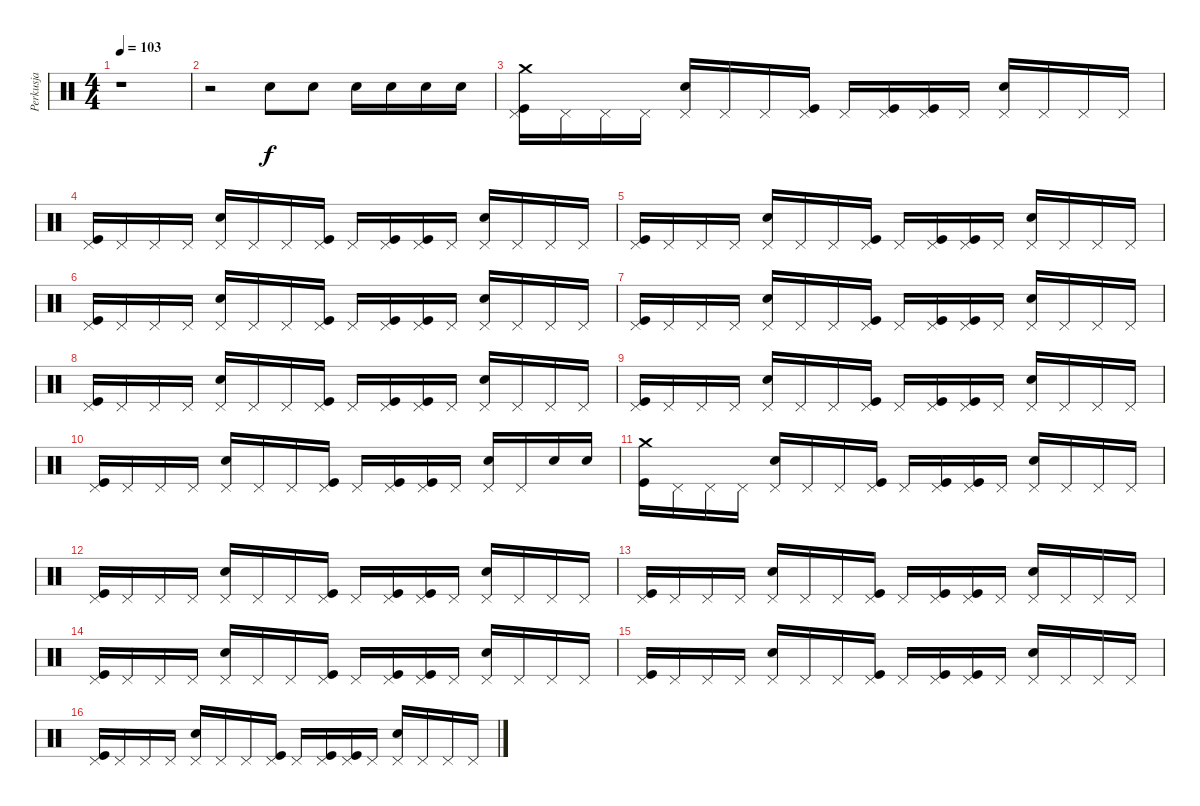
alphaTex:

\track ("Perkusja" "Perkusja") {instrument percussion}
\staff {score}
\articulation defaults
\ts (4 4)
\tempo 103
\clef neutral
\ks c
r.1{dy f} |
r.2 "Snare (hit) 2".8 "Snare (hit) 2".8 "Snare (hit) 2".16 "Snare (hit) 2".16 "Snare (hit) 2".16 "Snare (hit) 2".16 |
("Crash medium (hit)" "Pedal Hi-Hat (hit)" "Kick (hit)").16 "Pedal Hi-Hat (hit)".16 "Pedal Hi-Hat (hit)".16 "Pedal Hi-Hat (hit)".16 ("Pedal Hi-Hat (hit)" "Snare (hit) 2").16 "Pedal Hi-Hat (hit)".16 "Pedal Hi-Hat (hit)".16 ("Pedal Hi-Hat (hit)" "Kick (hit)").16 "Pedal Hi-Hat (hit)".16 ("Pedal Hi-Hat (hit)" "Kick (hit)").16 ("Pedal Hi-Hat (hit)" "Kick (hit)").16 "Pedal Hi-Hat (hit)".16 ("Pedal Hi-Hat (hit)" "Snare (hit) 2").16 "Pedal Hi-Hat (hit)".16 "Pedal Hi-Hat (hit)".16 "Pedal Hi-Hat (hit)".16 |
("Pedal Hi-Hat (hit)" "Kick (hit)").16 "Pedal Hi-Hat (hit)".16 "Pedal Hi-Hat (hit)".16 "Pedal Hi-Hat (hit)".16 ("Pedal Hi-Hat (hit)" "Snare (hit) 2").16 "Pedal Hi-Hat (hit)".16 "Pedal Hi-Hat (hit)".16 ("Pedal Hi-Hat (hit)" "Kick (hit)").16 "Pedal Hi-Hat (hit)".16 ("Pedal Hi-Hat (hit)" "Kick (hit)").16 ("Pedal Hi-Hat (hit)" "Kick (hit)").16 "Pedal Hi-Hat (hit)".16 ("Pedal Hi-Hat (hit)" "Snare (hit) 2").16 "Pedal Hi-Hat (hit)".16 "Pedal Hi-Hat (hit)".16 "Pedal Hi-Hat (hit)".16 |
("Pedal Hi-Hat (hit)" "Kick (hit)").16 "Pedal Hi-Hat (hit)".16 "Pedal Hi-Hat (hit)".16 "Pedal Hi-Hat (hit)".16 ("Pedal Hi-Hat (hit)" "Snare (hit) 2").16 "Pedal Hi-Hat (hit)".16 "Pedal Hi-Hat (hit)".16 ("Pedal Hi-Hat (hit)" "Kick (hit)").16 "Pedal Hi-Hat (hit)".16 ("Pedal Hi-Hat (hit)" "Kick (hit)").16 ("Pedal Hi-Hat (hit)" "Kick (hit)").16 "Pedal Hi-Hat (hit)".16 ("Pedal Hi-Hat (hit)" "Snare (hit) 2").16 "Pedal Hi-Hat (hit)".16 "Pedal Hi-Hat (hit)".16 "Pedal Hi-Hat (hit)".16 |
("Pedal Hi-Hat (hit)" "Kick (hit)").16 "Pedal Hi-Hat (hit)".16 "Pedal Hi-Hat (hit)".16 "Pedal Hi-Hat (hit)".16 ("Pedal Hi-Hat (hit)" "Snare (hit) 2").16 "Pedal Hi-Hat (hit)".16 "Pedal Hi-Hat (hit)".16 ("Pedal Hi-Hat (hit)" "Kick (hit)").16 "Pedal Hi-Hat (hit)".16 ("Pedal Hi-Hat (hit)" "Kick (hit)").16 ("Pedal Hi-Hat (hit)" "Kick (hit)").16 "Pedal Hi-Hat (hit)".16 ("Pedal Hi-Hat (hit)" "Snare (hit) 2").16 "Pedal Hi-Hat (hit)".16 "Pedal Hi-Hat (hit)".16 "Pedal Hi-Hat (hit)".16 |
("Pedal Hi-Hat (hit)" "Kick (hit)").16 "Pedal Hi-Hat (hit)".16 "Pedal Hi-Hat (hit)".16 "Pedal Hi-Hat (hit)".16 ("Pedal Hi-Hat (hit)" "Snare (hit) 2").16 "Pedal Hi-Hat (hit)".16 "Pedal Hi-Hat (hit)".16 ("Pedal Hi-Hat (hit)" "Kick (hit)").16 "Pedal Hi-Hat (hit)".16 ("Pedal Hi-Hat (hit)" "Kick (hit)").16 ("Pedal Hi-Hat (hit)" "Kick (hit)").16 "Pedal Hi-Hat (hit)".16 ("Pedal Hi-Hat (hit)" "Snare (hit) 2").16 "Pedal Hi-Hat (hit)".16 "Pedal Hi-Hat (hit)".16 "Pedal Hi-Hat (hit)".16 |
("Pedal Hi-Hat (hit)" "Kick (hit)").16 "Pedal Hi-Hat (hit)".16 "Pedal Hi-Hat (hit)".16 "Pedal Hi-Hat (hit)".16 ("Pedal Hi-Hat (hit)" "Snare (hit) 2").16 "Pedal Hi-Hat (hit)".16 "Pedal Hi-Hat (hit)".16 ("Pedal Hi-Hat (hit)" "Kick (hit)").16 "Pedal Hi-Hat (hit)".16 ("Pedal Hi-Hat (hit)" "Kick (hit)").16 ("Pedal Hi-Hat (hit)" "Kick (hit)").16 "Pedal Hi-Hat (hit)".16 ("Pedal Hi-Hat (hit)" "Snare (hit) 2").16 "Pedal Hi-Hat (hit)".16 "Pedal Hi-Hat (hit)".16 "Pedal Hi-Hat (hit)".16 |
("Pedal Hi-Hat (hit)" "Kick (hit)").16 "Pedal Hi-Hat (hit)".16 "Pedal Hi-Hat (hit)".16 "Pedal Hi-Hat (hit)".16 ("Pedal Hi-Hat (hit)" "Snare (hit) 2").16 "Pedal Hi-Hat (hit)".16 "Pedal Hi-Hat (hit)".16 ("Pedal Hi-Hat (hit)" "Kick (hit)").16 "Pedal Hi-Hat (hit)".16 ("Pedal Hi-Hat (hit)" "Kick (hit)").16 ("Pedal Hi-Hat (hit)" "Kick (hit)").16 "Pedal Hi-Hat (hit)".16 ("Pedal Hi-Hat (hit)" "Snare (hit) 2").16 "Pedal Hi-Hat (hit)".16 "Pedal Hi-Hat (hit)".16 "Pedal Hi-Hat (hit)".16 |
("Pedal Hi-Hat (hit)" "Kick (hit)").16 "Pedal Hi-Hat (hit)".16 "Pedal Hi-Hat (hit)".16 "Pedal Hi-Hat (hit)".16 ("Pedal Hi-Hat (hit)" "Snare (hit) 2").16 "Pedal Hi-Hat (hit)".16 "Pedal Hi-Hat (hit)".16 ("Pedal Hi-Hat (hit)" "Kick (hit)").16 "Pedal Hi-Hat (hit)".16 ("Pedal Hi-Hat (hit)" "Kick (hit)").16 ("Pedal Hi-Hat (hit)" "Kick (hit)").16 "Pedal Hi-Hat (hit)".16 ("Pedal Hi-Hat (hit)" "Snare (hit) 2").16 "Pedal Hi-Hat (hit)".16 "Snare (hit) 2".16 "Snare (hit) 2".16 |
("Crash medium (hit)" "Kick (hit)").16 "Pedal Hi-Hat (hit)".16 "Pedal Hi-Hat (hit)".16 "Pedal Hi-Hat (hit)".16 ("Pedal Hi-Hat (hit)" "Snare (hit) 2").16 "Pedal Hi-Hat (hit)".16 "Pedal Hi-Hat (hit)".16 ("Pedal Hi-Hat (hit)" "Kick (hit)").16 "Pedal Hi-Hat (hit)".16 ("Pedal Hi-Hat (hit)" "Kick (hit)").16 ("Pedal Hi-Hat (hit)" "Kick (hit)").16 "Pedal Hi-Hat (hit)".16 ("Pedal Hi-Hat (hit)" "Snare (hit) 2").16 "Pedal Hi-Hat (hit)".16 "Pedal Hi-Hat (hit)".16 "Pedal Hi-Hat (hit)".16 |
("Pedal Hi-Hat (hit)" "Kick (hit)").16 "Pedal Hi-Hat (hit)".16 "Pedal Hi-Hat (hit)".16 "Pedal Hi-Hat (hit)".16 ("Pedal Hi-Hat (hit)" "Snare (hit) 2").16 "Pedal Hi-Hat (hit)".16 "Pedal Hi-Hat (hit)".16 ("Pedal Hi-Hat (hit)" "Kick (hit)").16 "Pedal Hi-Hat (hit)".16 ("Pedal Hi-Hat (hit)" "Kick (hit)").16 ("Pedal Hi-Hat (hit)" "Kick (hit)").16 "Pedal Hi-Hat (hit)".16 ("Pedal Hi-Hat (hit)" "Snare (hit) 2").16 "Pedal Hi-Hat (hit)".16 "Pedal Hi-Hat (hit)".16 "Pedal Hi-Hat (hit)".16 |
("Pedal Hi-Hat (hit)" "Kick (hit)").16 "Pedal Hi-Hat (hit)".16 "Pedal Hi-Hat (hit)".16 "Pedal Hi-Hat (hit)".16 ("Pedal Hi-Hat (hit)" "Snare (hit) 2").16 "Pedal Hi-Hat (hit)".16 "Pedal Hi-Hat (hit)".16 ("Pedal Hi-Hat (hit)" "Kick (hit)").16 "Pedal Hi-Hat (hit)".16 ("Pedal Hi-Hat (hit)" "Kick (hit)").16 ("Pedal Hi-Hat (hit)" "Kick (hit)").16 "Pedal Hi-Hat (hit)".16 ("Pedal Hi-Hat (hit)" "Snare (hit) 2").16 "Pedal Hi-Hat (hit)".16 "Pedal Hi-Hat (hit)".16 "Pedal Hi-Hat (hit)".16 |
("Pedal Hi-Hat (hit)" "Kick (hit)").16 "Pedal Hi-Hat (hit)".16 "Pedal Hi-Hat (hit)".16 "Pedal Hi-Hat (hit)".16 ("Pedal Hi-Hat (hit)" "Snare (hit) 2").16 "Pedal Hi-Hat (hit)".16 "Pedal Hi-Hat (hit)".16 ("Pedal Hi-Hat (hit)" "Kick (hit)").16 "Pedal Hi-Hat (hit)".16 ("Pedal Hi-Hat (hit)" "Kick (hit)").16 ("Pedal Hi-Hat (hit)" "Kick (hit)").16 "Pedal Hi-Hat (hit)".16 ("Pedal Hi-Hat (hit)" "Snare (hit) 2").16 "Pedal Hi-Hat (hit)".16 "Pedal Hi-Hat (hit)".16 "Pedal Hi-Hat (hit)".16 |
("Pedal Hi-Hat (hit)" "Kick (hit)").16 "Pedal Hi-Hat (hit)".16 "Pedal Hi-Hat (hit)".16 "Pedal Hi-Hat (hit)".16 ("Pedal Hi-Hat (hit)" "Snare (hit) 2").16 "Pedal Hi-Hat (hit)".16 "Pedal Hi-Hat (hit)".16 ("Pedal Hi-Hat (hit)" "Kick (hit)").16 "Pedal Hi-Hat (hit)".16 ("Pedal Hi-Hat (hit)" "Kick (hit)").16 ("Pedal Hi-Hat (hit)" "Kick (hit)").16 "Pedal Hi-Hat (hit)".16 ("Pedal Hi-Hat (hit)" "Snare (hit) 2").16 "Pedal Hi-Hat (hit)".16 "Pedal Hi-Hat (hit)".16 "Pedal Hi-Hat (hit)".16 |
("Pedal Hi-Hat (hit)" "Kick (hit)").16 "Pedal Hi-Hat (hit)".16 "Pedal Hi-Hat (hit)".16 "Pedal Hi-Hat (hit)".16 ("Pedal Hi-Hat (hit)" "Snare (hit) 2").16 "Pedal Hi-Hat (hit)".16 "Pedal Hi-Hat (hit)".16 ("Pedal Hi-Hat (hit)" "Kick (hit)").16 "Pedal Hi-Hat (hit)".16 ("Pedal Hi-Hat (hit)" "Kick (hit)").16 ("Pedal Hi-Hat (hit)" "Kick (hit)").16 "Pedal Hi-Hat (hit)".16 ("Pedal Hi-Hat (hit)" "Snare (hit) 2").16 "Pedal Hi-Hat (hit)".16 "Pedal Hi-Hat (hit)".16 "Pedal Hi-Hat (hit)".16
